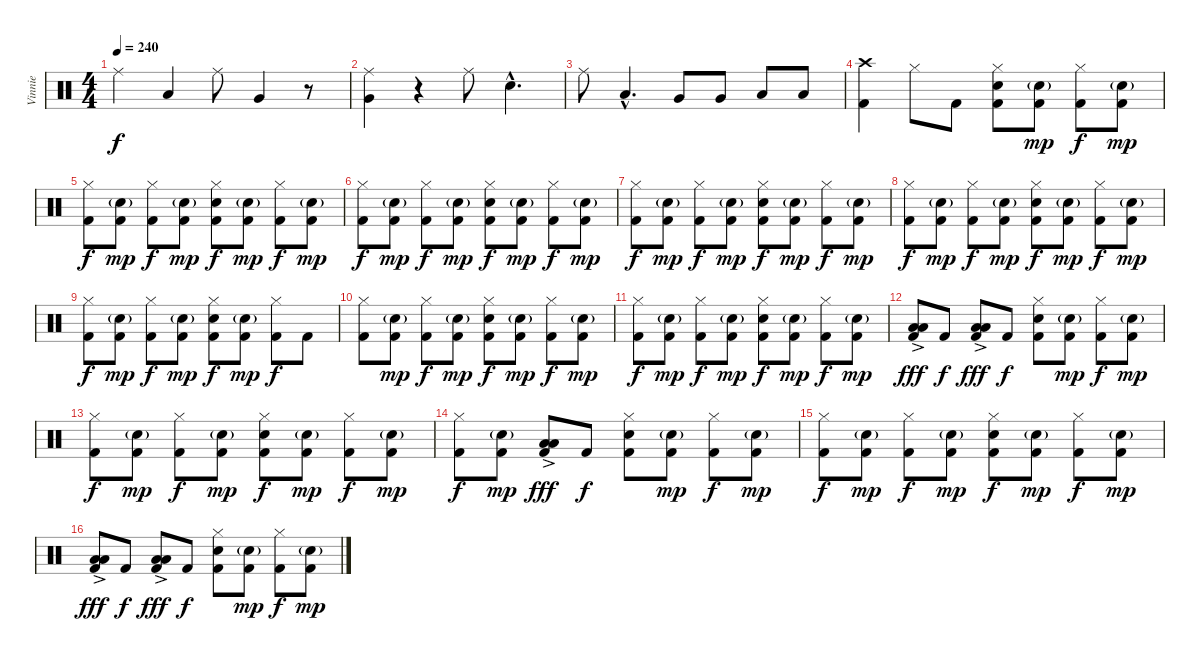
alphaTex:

\track ("Vinnie" "Vinnie") {instrument percussion}
\staff {score}
\articulation defaults
\ts (4 4)
\tempo 240
\clef neutral
\ks c "Ride (middle)".4{dy f} "Low Tom (hit)".4 "Ride (middle)".8 "Very Low Tom (hit)".4
r.8 |
("Ride (middle)" "Very Low Tom (hit)").4 r.4 "Ride (middle)".8 "Electric Snare (hit)"{hac}.4{d} |
"Ride (middle)".8 "Low Tom (hit)"{hac}.4{d} "Very Low Tom (hit)".8 "Very Low Tom (hit)".8 "Low Floor Tom (hit)".8 "Low Floor Tom (hit)".8 |
("Crash high (hit)" "Kick (hit) 2").4 "Hi-Hat (closed)".8 "Kick (hit) 2".8 ("Hi-Hat (closed)" "Electric Snare (hit)" "Kick (hit) 2").8 ("Electric Snare (hit)"{g} "Kick (hit) 2").8{dy mp} ("Hi-Hat (closed)" "Kick (hit) 2").8{dy f} ("Electric Snare (hit)"{g} "Kick (hit) 2").8{dy mp} |
("Hi-Hat (closed)" "Kick (hit) 2").8{dy f} ("Electric Snare (hit)"{g} "Kick (hit) 2").8{dy mp} ("Hi-Hat (closed)" "Kick (hit) 2").8{dy f} ("Electric Snare (hit)"{g} "Kick (hit) 2").8{dy mp} ("Hi-Hat (closed)" "Electric Snare (hit)" "Kick (hit) 2").8{dy f} ("Electric Snare (hit)"{g} "Kick (hit) 2").8{dy mp} ("Hi-Hat (closed)" "Kick (hit) 2").8{dy f} ("Electric Snare (hit)"{g} "Kick (hit) 2").8{dy mp} |
("Hi-Hat (closed)" "Kick (hit) 2").8{dy f} ("Electric Snare (hit)"{g} "Kick (hit) 2").8{dy mp} ("Hi-Hat (closed)" "Kick (hit) 2").8{dy f} ("Electric Snare (hit)"{g} "Kick (hit) 2").8{dy mp} ("Hi-Hat (closed)" "Electric Snare (hit)" "Kick (hit) 2").8{dy f} ("Electric Snare (hit)"{g} "Kick (hit) 2").8{dy mp} ("Hi-Hat (closed)" "Kick (hit) 2").8{dy f} ("Electric Snare (hit)"{g} "Kick (hit) 2").8{dy mp} |
("Hi-Hat (closed)" "Kick (hit) 2").8{dy f} ("Electric Snare (hit)"{g} "Kick (hit) 2").8{dy mp} ("Hi-Hat (closed)" "Kick (hit) 2").8{dy f} ("Electric Snare (hit)"{g} "Kick (hit) 2").8{dy mp} ("Hi-Hat (closed)" "Electric Snare (hit)" "Kick (hit) 2").8{dy f} ("Electric Snare (hit)"{g} "Kick (hit) 2").8{dy mp} ("Hi-Hat (closed)" "Kick (hit) 2").8{dy f} ("Electric Snare (hit)"{g} "Kick (hit) 2").8{dy mp} |
("Hi-Hat (closed)" "Kick (hit) 2").8{dy f} ("Electric Snare (hit)"{g} "Kick (hit) 2").8{dy mp} ("Hi-Hat (closed)" "Kick (hit) 2").8{dy f} ("Electric Snare (hit)"{g} "Kick (hit) 2").8{dy mp} ("Hi-Hat (closed)" "Electric Snare (hit)" "Kick (hit) 2").8{dy f} ("Electric Snare (hit)"{g} "Kick (hit) 2").8{dy mp} ("Hi-Hat (closed)" "Kick (hit) 2").8{dy f} ("Electric Snare (hit)"{g} "Kick (hit) 2").8{dy mp} |
("Hi-Hat (closed)" "Kick (hit) 2").8{dy f} ("Electric Snare (hit)"{g} "Kick (hit) 2").8{dy mp} ("Hi-Hat (closed)" "Kick (hit) 2").8{dy f} ("Electric Snare (hit)"{g} "Kick (hit) 2").8{dy mp} ("Hi-Hat (closed)" "Electric Snare (hit)" "Kick (hit) 2").8{dy f} ("Electric Snare (hit)"{g} "Kick (hit) 2").8{dy mp} ("Hi-Hat (closed)" "Kick (hit) 2").8{dy f} "Kick (hit) 2".8 |
("Hi-Hat (closed)" "Kick (hit) 2").8 ("Electric Snare (hit)"{g} "Kick (hit) 2").8{dy mp} ("Hi-Hat (closed)" "Kick (hit) 2").8{dy f} ("Electric Snare (hit)"{g} "Kick (hit) 2").8{dy mp} ("Hi-Hat (closed)" "Electric Snare (hit)" "Kick (hit) 2").8{dy f} ("Electric Snare (hit)"{g} "Kick (hit) 2").8{dy mp} ("Hi-Hat (closed)" "Kick (hit) 2").8{dy f} ("Electric Snare (hit)"{g} "Kick (hit) 2").8{dy mp} |
("Hi-Hat (closed)" "Kick (hit) 2").8{dy f} ("Electric Snare (hit)"{g} "Kick (hit) 2").8{dy mp} ("Hi-Hat (closed)" "Kick (hit) 2").8{dy f} ("Electric Snare (hit)"{g} "Kick (hit) 2").8{dy mp} ("Hi-Hat (closed)" "Electric Snare (hit)" "Kick (hit) 2").8{dy f} ("Electric Snare (hit)"{g} "Kick (hit) 2").8{dy mp} ("Hi-Hat (closed)" "Kick (hit) 2").8{dy f} ("Electric Snare (hit)"{g} "Kick (hit) 2").8{dy mp} |
("Low Tom (hit)"{ac} "Low Tom (hit)"{ac} "Kick (hit) 2").8{dy fff} "Kick (hit) 2".8{dy f} ("Low Tom (hit)"{ac} "Low Tom (hit)"{ac} "Kick (hit) 2").8{dy fff} "Kick (hit) 2".8{dy f} ("Hi-Hat (closed)" "Electric Snare (hit)" "Kick (hit) 2").8 ("Electric Snare (hit)"{g} "Kick (hit) 2").8{dy mp} ("Hi-Hat (closed)" "Kick (hit) 2").8{dy f} ("Electric Snare (hit)"{g} "Kick (hit) 2").8{dy mp} |
("Hi-Hat (closed)" "Kick (hit) 2").8{dy f} ("Electric Snare (hit)"{g} "Kick (hit) 2").8{dy mp} ("Hi-Hat (closed)" "Kick (hit) 2").8{dy f} ("Electric Snare (hit)"{g} "Kick (hit) 2").8{dy mp} ("Hi-Hat (closed)" "Electric Snare (hit)" "Kick (hit) 2").8{dy f} ("Electric Snare (hit)"{g} "Kick (hit) 2").8{dy mp} ("Hi-Hat (closed)" "Kick (hit) 2").8{dy f} ("Electric Snare (hit)"{g} "Kick (hit) 2").8{dy mp} |
("Hi-Hat (closed)" "Kick (hit) 2").8{dy f} ("Electric Snare (hit)"{g} "Kick (hit) 2").8{dy mp} ("Low Tom (hit)"{ac} "Low Tom (hit)"{ac} "Kick (hit) 2").8{dy fff} "Kick (hit) 2".8{dy f} ("Hi-Hat (closed)" "Electric Snare (hit)" "Kick (hit) 2").8 ("Electric Snare (hit)"{g} "Kick (hit) 2").8{dy mp} ("Hi-Hat (closed)" "Kick (hit) 2").8{dy f} ("Electric Snare (hit)"{g} "Kick (hit) 2").8{dy mp} |
("Hi-Hat (closed)" "Kick (hit) 2").8{dy f} ("Electric Snare (hit)"{g} "Kick (hit) 2").8{dy mp} ("Hi-Hat (closed)" "Kick (hit) 2").8{dy f} ("Electric Snare (hit)"{g} "Kick (hit) 2").8{dy mp} ("Hi-Hat (closed)" "Electric Snare (hit)" "Kick (hit) 2").8{dy f} ("Electric Snare (hit)"{g} "Kick (hit) 2").8{dy mp} ("Hi-Hat (closed)" "Kick (hit) 2").8{dy f} ("Electric Snare (hit)"{g} "Kick (hit) 2").8{dy mp} |
("Low Tom (hit)"{ac} "Low Tom (hit)"{ac} "Kick (hit) 2").8{dy fff} "Kick (hit) 2".8{dy f} ("Low Tom (hit)"{ac} "Low Tom (hit)"{ac} "Kick (hit) 2").8{dy fff} "Kick (hit) 2".8{dy f} ("Hi-Hat (closed)" "Electric Snare (hit)" "Kick (hit) 2").8 ("Electric Snare (hit)"{g} "Kick (hit) 2").8{dy mp} ("Hi-Hat (closed)" "Kick (hit) 2").8{dy f} ("Electric Snare (hit)"{g} "Kick (hit) 2").8{dy mp}
